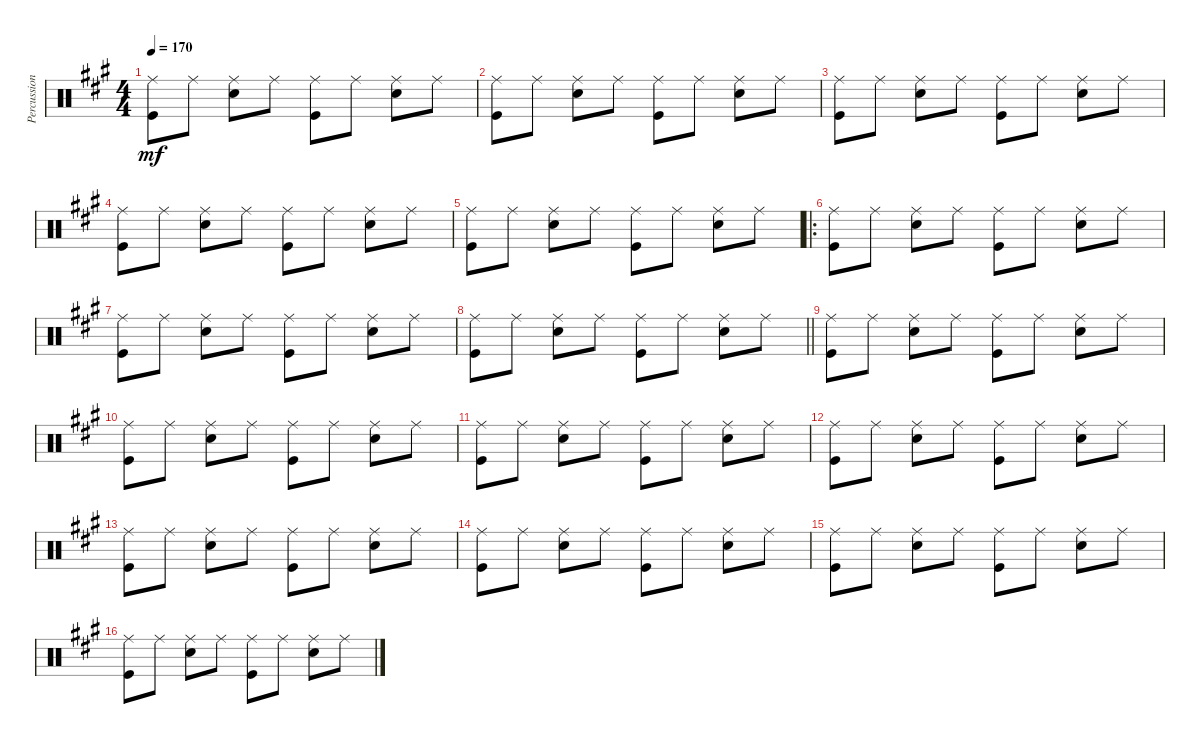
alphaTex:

\track ("Percussion" "Percussion") {instrument percussion}
\staff {score}
\articulation defaults
\ts (4 4)
\tempo 170
\clef neutral
\ks a
("Ride (middle)" "Kick (hit)").8{dy mf} "Ride (middle)".8 ("Ride (middle)" "Snare (hit) 2").8 "Ride (middle)".8 ("Ride (middle)" "Kick (hit)").8 "Ride (middle)".8 ("Ride (middle)" "Snare (hit) 2").8 "Ride (middle)".8 |
("Ride (middle)" "Kick (hit)").8 "Ride (middle)".8 ("Ride (middle)" "Snare (hit) 2").8 "Ride (middle)".8 ("Ride (middle)" "Kick (hit)").8 "Ride (middle)".8 ("Ride (middle)" "Snare (hit) 2").8 "Ride (middle)".8 |
("Ride (middle)" "Kick (hit)").8 "Ride (middle)".8 ("Ride (middle)" "Snare (hit) 2").8 "Ride (middle)".8 ("Ride (middle)" "Kick (hit)").8 "Ride (middle)".8 ("Ride (middle)" "Snare (hit) 2").8 "Ride (middle)".8 |
("Ride (middle)" "Kick (hit)").8 "Ride (middle)".8 ("Ride (middle)" "Snare (hit) 2").8 "Ride (middle)".8 ("Ride (middle)" "Kick (hit)").8 "Ride (middle)".8 ("Ride (middle)" "Snare (hit) 2").8 "Ride (middle)".8 |
("Ride (middle)" "Kick (hit)").8 "Ride (middle)".8 ("Ride (middle)" "Snare (hit) 2").8 "Ride (middle)".8 ("Ride (middle)" "Kick (hit)").8 "Ride (middle)".8 ("Ride (middle)" "Snare (hit) 2").8 "Ride (middle)".8 |
\ro
("Ride (middle)" "Kick (hit)").8 "Ride (middle)".8 ("Ride (middle)" "Snare (hit) 2").8 "Ride (middle)".8 ("Ride (middle)" "Kick (hit)").8 "Ride (middle)".8 ("Ride (middle)" "Snare (hit) 2").8 "Ride (middle)".8 |
("Ride (middle)" "Kick (hit)").8 "Ride (middle)".8 ("Ride (middle)" "Snare (hit) 2").8 "Ride (middle)".8 ("Ride (middle)" "Kick (hit)").8 "Ride (middle)".8 ("Ride (middle)" "Snare (hit) 2").8 "Ride (middle)".8 |
\barLineRight lightlight
("Ride (middle)" "Kick (hit)").8 "Ride (middle)".8 ("Ride (middle)" "Snare (hit) 2").8 "Ride (middle)".8 ("Ride (middle)" "Kick (hit)").8 "Ride (middle)".8 ("Ride (middle)" "Snare (hit) 2").8 "Ride (middle)".8 |
("Ride (middle)" "Kick (hit)").8 "Ride (middle)".8 ("Ride (middle)" "Snare (hit) 2").8 "Ride (middle)".8 ("Ride (middle)" "Kick (hit)").8 "Ride (middle)".8 ("Ride (middle)" "Snare (hit) 2").8 "Ride (middle)".8 |
("Ride (middle)" "Kick (hit)").8 "Ride (middle)".8 ("Ride (middle)" "Snare (hit) 2").8 "Ride (middle)".8 ("Ride (middle)" "Kick (hit)").8 "Ride (middle)".8 ("Ride (middle)" "Snare (hit) 2").8 "Ride (middle)".8 |
("Ride (middle)" "Kick (hit)").8 "Ride (middle)".8 ("Ride (middle)" "Snare (hit) 2").8 "Ride (middle)".8 ("Ride (middle)" "Kick (hit)").8 "Ride (middle)".8 ("Ride (middle)" "Snare (hit) 2").8 "Ride (middle)".8 |
("Ride (middle)" "Kick (hit)").8 "Ride (middle)".8 ("Ride (middle)" "Snare (hit) 2").8 "Ride (middle)".8 ("Ride (middle)" "Kick (hit)").8 "Ride (middle)".8 ("Ride (middle)" "Snare (hit) 2").8 "Ride (middle)".8 |
("Ride (middle)" "Kick (hit)").8 "Ride (middle)".8 ("Ride (middle)" "Snare (hit) 2").8 "Ride (middle)".8 ("Ride (middle)" "Kick (hit)").8 "Ride (middle)".8 ("Ride (middle)" "Snare (hit) 2").8 "Ride (middle)".8 |
("Ride (middle)" "Kick (hit)").8 "Ride (middle)".8 ("Ride (middle)" "Snare (hit) 2").8 "Ride (middle)".8 ("Ride (middle)" "Kick (hit)").8 "Ride (middle)".8 ("Ride (middle)" "Snare (hit) 2").8 "Ride (middle)".8 |
("Ride (middle)" "Kick (hit)").8 "Ride (middle)".8 ("Ride (middle)" "Snare (hit) 2").8 "Ride (middle)".8 ("Ride (middle)" "Kick (hit)").8 "Ride (middle)".8 ("Ride (middle)" "Snare (hit) 2").8 "Ride (middle)".8 |
("Ride (middle)" "Kick (hit)").8 "Ride (middle)".8 ("Ride (middle)" "Snare (hit) 2").8 "Ride (middle)".8 ("Ride (middle)" "Kick (hit)").8 "Ride (middle)".8 ("Ride (middle)" "Snare (hit) 2").8 "Ride (middle)".8
